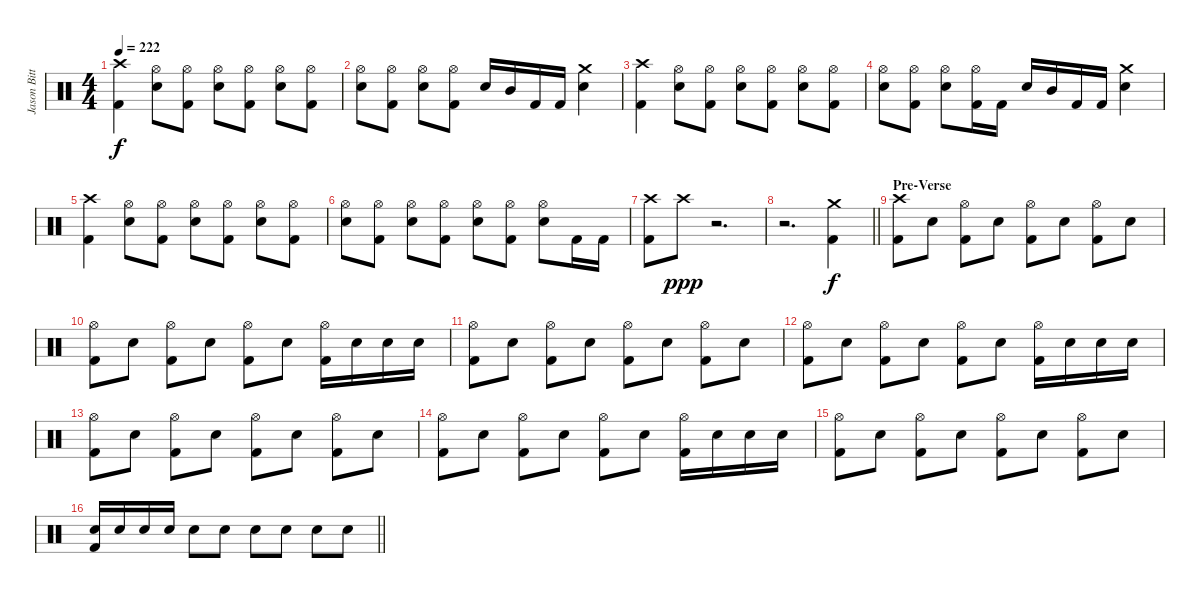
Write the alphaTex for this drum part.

\track ("Jason Bittner" "Jason Bitt") {instrument percussion}
\staff {score}
\articulation defaults
\ts (4 4)
\tempo 222
\clef neutral
\ks c
("Crash high (hit)" "Kick (hit) 2").4{dy f} ("Hi-Hat (open)" "Electric Snare (hit)").8 ("Hi-Hat (open)" "Kick (hit) 2").8 ("Hi-Hat (open)" "Electric Snare (hit)").8 ("Hi-Hat (open)" "Kick (hit) 2").8 ("Hi-Hat (open)" "Electric Snare (hit)").8 ("Hi-Hat (open)" "Kick (hit) 2").8 |
("Hi-Hat (open)" "Electric Snare (hit)").8 ("Hi-Hat (open)" "Kick (hit) 2").8 ("Hi-Hat (open)" "Electric Snare (hit)").8 ("Hi-Hat (open)" "Kick (hit) 2").8 "Electric Snare (hit)".16 "Mid Tom (hit)".16 "Kick (hit) 2".16 "Kick (hit) 2".16 ("Crash medium (hit)" "Electric Snare (hit)").4 |
("Crash high (hit)" "Kick (hit) 2").4 ("Hi-Hat (open)" "Electric Snare (hit)").8 ("Hi-Hat (open)" "Kick (hit) 2").8 ("Hi-Hat (open)" "Electric Snare (hit)").8 ("Hi-Hat (open)" "Kick (hit) 2").8 ("Hi-Hat (open)" "Electric Snare (hit)").8 ("Hi-Hat (open)" "Kick (hit) 2").8 |
("Hi-Hat (open)" "Electric Snare (hit)").8 ("Hi-Hat (open)" "Kick (hit) 2").8 ("Hi-Hat (open)" "Electric Snare (hit)").8 ("Hi-Hat (open)" "Kick (hit) 2").16 "Kick (hit) 2".16 "Electric Snare (hit)".16 "Mid Tom (hit)".16 "Kick (hit) 2".16 "Kick (hit) 2".16 ("Crash medium (hit)" "Electric Snare (hit)").4 |
("Crash high (hit)" "Kick (hit) 2").4 ("Hi-Hat (open)" "Electric Snare (hit)").8 ("Hi-Hat (open)" "Kick (hit) 2").8 ("Hi-Hat (open)" "Electric Snare (hit)").8 ("Hi-Hat (open)" "Kick (hit) 2").8 ("Hi-Hat (open)" "Electric Snare (hit)").8 ("Hi-Hat (open)" "Kick (hit) 2").8 |
("Hi-Hat (open)" "Electric Snare (hit)").8 ("Hi-Hat (open)" "Kick (hit) 2").8 ("Hi-Hat (open)" "Electric Snare (hit)").8 ("Hi-Hat (open)" "Kick (hit) 2").8 ("Hi-Hat (open)" "Electric Snare (hit)").8 ("Hi-Hat (open)" "Kick (hit) 2").8 ("Hi-Hat (open)" "Electric Snare (hit)").8 "Kick (hit) 2".16 "Kick (hit) 2".16 |
("Crash high (hit)" "Kick (hit) 2").8 "Crash high (hit)".8{dy ppp} r.2{d} |
\barLineRight lightlight
r.2{d} ("Crash medium (hit)" "Kick (hit) 2").4{dy f} |
\section ("" "Pre-Verse")
("Crash high (hit)" "Kick (hit) 2").8 "Electric Snare (hit)".8 ("Hi-Hat (open)" "Kick (hit) 2").8 "Electric Snare (hit)".8 ("Hi-Hat (open)" "Kick (hit) 2").8 "Electric Snare (hit)".8 ("Hi-Hat (open)" "Kick (hit) 2").8 "Electric Snare (hit)".8 |
("Hi-Hat (open)" "Kick (hit) 2").8 "Electric Snare (hit)".8 ("Hi-Hat (open)" "Kick (hit) 2").8 "Electric Snare (hit)".8 ("Hi-Hat (open)" "Kick (hit) 2").8 "Electric Snare (hit)".8 ("Hi-Hat (open)" "Kick (hit) 2").16 "Electric Snare (hit)".16 "Electric Snare (hit)".16 "Electric Snare (hit)".16 |
("Hi-Hat (open)" "Kick (hit) 2").8 "Electric Snare (hit)".8 ("Hi-Hat (open)" "Kick (hit) 2").8 "Electric Snare (hit)".8 ("Hi-Hat (open)" "Kick (hit) 2").8 "Electric Snare (hit)".8 ("Hi-Hat (open)" "Kick (hit) 2").8 "Electric Snare (hit)".8 |
("Hi-Hat (open)" "Kick (hit) 2").8 "Electric Snare (hit)".8 ("Hi-Hat (open)" "Kick (hit) 2").8 "Electric Snare (hit)".8 ("Hi-Hat (open)" "Kick (hit) 2").8 "Electric Snare (hit)".8 ("Hi-Hat (open)" "Kick (hit) 2").16 "Electric Snare (hit)".16 "Electric Snare (hit)".16 "Electric Snare (hit)".16 |
("Hi-Hat (open)" "Kick (hit) 2").8 "Electric Snare (hit)".8 ("Hi-Hat (open)" "Kick (hit) 2").8 "Electric Snare (hit)".8 ("Hi-Hat (open)" "Kick (hit) 2").8 "Electric Snare (hit)".8 ("Hi-Hat (open)" "Kick (hit) 2").8 "Electric Snare (hit)".8 |
("Hi-Hat (open)" "Kick (hit) 2").8 "Electric Snare (hit)".8 ("Hi-Hat (open)" "Kick (hit) 2").8 "Electric Snare (hit)".8 ("Hi-Hat (open)" "Kick (hit) 2").8 "Electric Snare (hit)".8 ("Hi-Hat (open)" "Kick (hit) 2").16 "Electric Snare (hit)".16 "Electric Snare (hit)".16 "Electric Snare (hit)".16 |
("Hi-Hat (open)" "Kick (hit) 2").8 "Electric Snare (hit)".8 ("Hi-Hat (open)" "Kick (hit) 2").8 "Electric Snare (hit)".8 ("Hi-Hat (open)" "Kick (hit) 2").8 "Electric Snare (hit)".8 ("Hi-Hat (open)" "Kick (hit) 2").8 "Electric Snare (hit)".8 |
\barLineRight lightlight
("Electric Snare (hit)" "Kick (hit) 2").16 "Electric Snare (hit)".16 "Electric Snare (hit)".16 "Electric Snare (hit)".16 "Electric Snare (hit)".8 "Electric Snare (hit)".8 "Electric Snare (hit)".8 "Electric Snare (hit)".8 "Electric Snare (hit)".8 "Electric Snare (hit)".8
